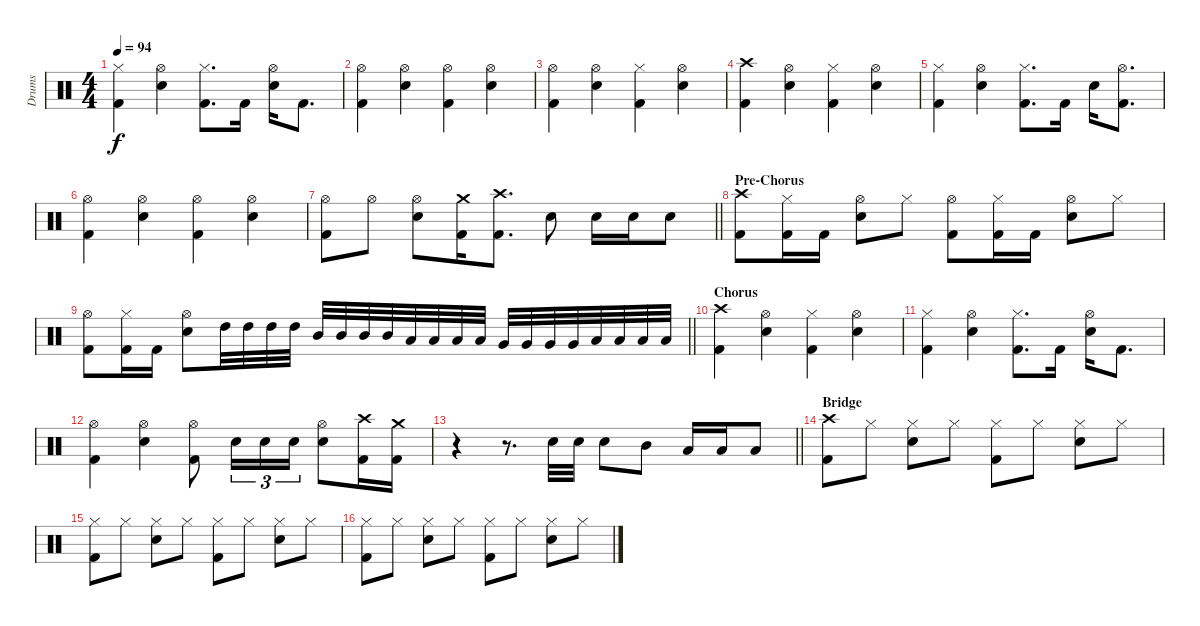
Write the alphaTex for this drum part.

\track ("Drums" "Drums") {instrument percussion}
\staff {score}
\articulation defaults
\ts (4 4)
\tempo 94
\clef neutral
\ks c
("Hi-Hat (closed)" "Kick (hit) 2").4{dy f} ("Hi-Hat (open)" "Snare (hit) 2").4 ("Hi-Hat (closed)" "Kick (hit) 2").8{d} "Kick (hit) 2".16 ("Hi-Hat (open)" "Snare (hit) 2").16 "Kick (hit) 2".8{d} |
("Hi-Hat (open)" "Kick (hit) 2").4 ("Hi-Hat (open)" "Snare (hit) 2").4 ("Hi-Hat (open)" "Kick (hit) 2").4 ("Hi-Hat (open)" "Snare (hit) 2").4 |
("Hi-Hat (open)" "Kick (hit) 2").4 ("Hi-Hat (open)" "Snare (hit) 2").4 ("Hi-Hat (closed)" "Kick (hit) 2").4 ("Hi-Hat (open)" "Snare (hit) 2").4 |
("Crash high (hit)" "Kick (hit) 2").4 ("Hi-Hat (open)" "Snare (hit) 2").4 ("Hi-Hat (closed)" "Kick (hit) 2").4 ("Hi-Hat (open)" "Snare (hit) 2").4 |
("Hi-Hat (closed)" "Kick (hit) 2").4 ("Hi-Hat (open)" "Snare (hit) 2").4 ("Hi-Hat (closed)" "Kick (hit) 2").8{d} "Kick (hit) 2".16 "Snare (hit) 2".16 ("Hi-Hat (open)" "Kick (hit) 2").8{d} |
("Hi-Hat (open)" "Kick (hit) 2").4 ("Hi-Hat (open)" "Snare (hit) 2").4 ("Hi-Hat (open)" "Kick (hit) 2").4 ("Hi-Hat (open)" "Snare (hit) 2").4 |
\barLineRight lightlight
("Hi-Hat (open)" "Kick (hit) 2").8 "Hi-Hat (open)".8 ("Hi-Hat (open)" "Snare (hit) 2").8 ("Crash medium (hit)" "Kick (hit) 2").16 ("Crash high (hit)" "Kick (hit) 2").8{d} "Snare (hit) 2".8 "Snare (hit) 2".16 "Snare (hit) 2".16 "Snare (hit) 2".8 |
\section ("" "Pre-Chorus")
("Crash high (hit)" "Kick (hit) 2").8 ("Hi-Hat (closed)" "Kick (hit) 2").16 "Kick (hit) 2".16 ("Hi-Hat (open)" "Snare (hit) 2").8 "Hi-Hat (closed)".8 ("Hi-Hat (open)" "Kick (hit) 2").8 ("Hi-Hat (closed)" "Kick (hit) 2").16 "Kick (hit) 2".16 ("Hi-Hat (open)" "Snare (hit) 2").8 "Hi-Hat (closed)".8 |
\barLineRight lightlight
("Hi-Hat (open)" "Kick (hit) 2").8 ("Hi-Hat (closed)" "Kick (hit) 2").16 "Kick (hit) 2".16 ("Hi-Hat (open)" "Snare (hit) 2").8 "High Tom (hit)".32 "High Tom (hit)".32 "High Tom (hit)".32 "High Tom (hit)".32 "Mid Tom (hit)".32 "Mid Tom (hit)".32 "Mid Tom (hit)".32 "Mid Tom (hit)".32 "Low Tom (hit)".32 "Low Tom (hit)".32 "Low Tom (hit)".32 "Low Tom (hit)".32 "Very Low Tom (hit)".32 "Very Low Tom (hit)".32 "Very Low Tom (hit)".32 "Very Low Tom (hit)".32 "Low Floor Tom (hit)".32 "Low Floor Tom (hit)".32 "Low Floor Tom (hit)".32 "Low Floor Tom (hit)".32 |
\section ("" "Chorus")
("Crash high (hit)" "Kick (hit) 2").4 ("Hi-Hat (open)" "Snare (hit) 2").4 ("Hi-Hat (closed)" "Kick (hit) 2").4 ("Hi-Hat (open)" "Snare (hit) 2").4 |
("Hi-Hat (closed)" "Kick (hit) 2").4 ("Hi-Hat (open)" "Snare (hit) 2").4 ("Hi-Hat (closed)" "Kick (hit) 2").8{d} "Kick (hit) 2".16 ("Hi-Hat (open)" "Snare (hit) 2").16 "Kick (hit) 2".8{d} |
("Hi-Hat (open)" "Kick (hit) 2").4 ("Hi-Hat (open)" "Snare (hit) 2").4 ("Hi-Hat (open)" "Kick (hit) 2").8 "Snare (hit) 2".16{tu (3 2)} "Snare (hit) 2".16{tu (3 2)} "Snare (hit) 2".16{tu (3 2)} ("Hi-Hat (open)" "Snare (hit) 2").8 ("Crash high (hit)" "Kick (hit) 2").16 ("Crash medium (hit)" "Kick (hit) 2").16 |
\barLineRight lightlight
r.4 r.8{d} "Snare (hit) 2".32 "Snare (hit) 2".32 "Snare (hit) 2".8 "Mid Tom (hit)".8 "Low Tom (hit)".16 "Low Tom (hit)".16 "Low Tom (hit)".8 |
\section ("" "Bridge")
("Crash high (hit)" "Kick (hit) 2").8 "Hi-Hat (closed)".8 ("Hi-Hat (closed)" "Snare (hit) 2").8 "Hi-Hat (closed)".8 ("Hi-Hat (closed)" "Kick (hit) 2").8 "Hi-Hat (closed)".8 ("Hi-Hat (closed)" "Snare (hit) 2").8 "Hi-Hat (closed)".8 |
("Hi-Hat (closed)" "Kick (hit) 2").8 "Hi-Hat (closed)".8 ("Hi-Hat (closed)" "Snare (hit) 2").8 "Hi-Hat (closed)".8 ("Hi-Hat (closed)" "Kick (hit) 2").8 "Hi-Hat (closed)".8 ("Hi-Hat (closed)" "Snare (hit) 2").8 "Hi-Hat (closed)".8 |
("Hi-Hat (closed)" "Kick (hit) 2").8 "Hi-Hat (closed)".8 ("Hi-Hat (closed)" "Snare (hit) 2").8 "Hi-Hat (closed)".8 ("Hi-Hat (closed)" "Kick (hit) 2").8 "Hi-Hat (closed)".8 ("Hi-Hat (closed)" "Snare (hit) 2").8 "Hi-Hat (closed)".8
